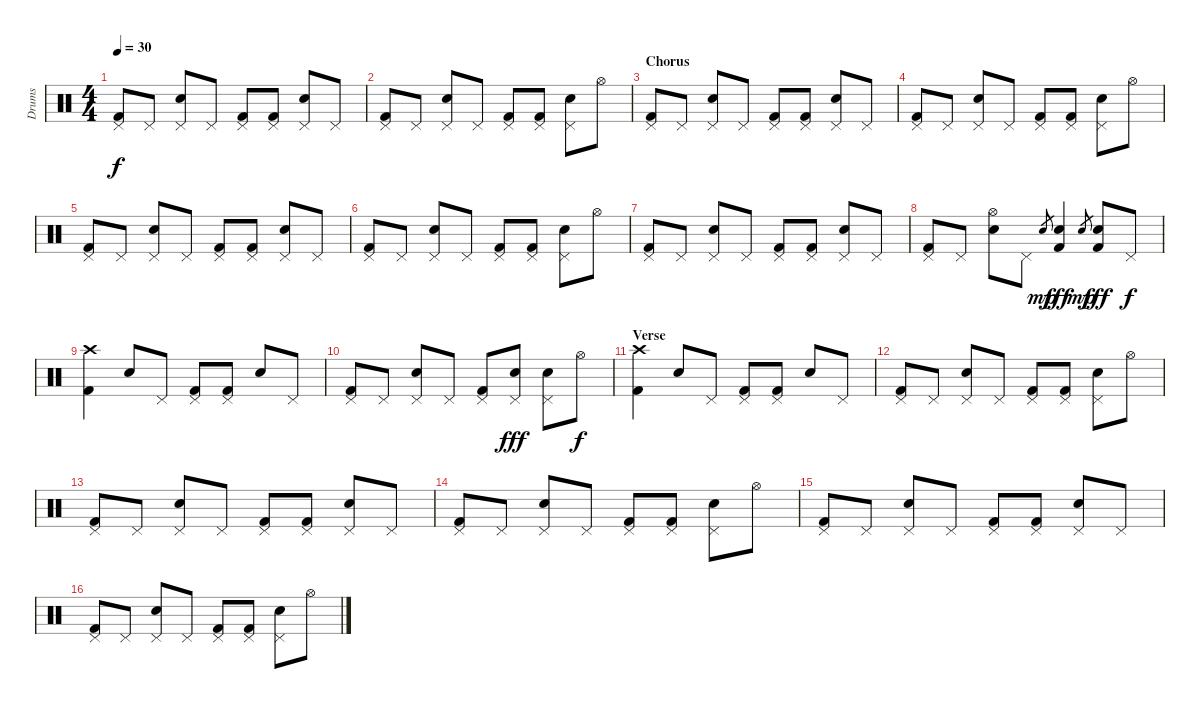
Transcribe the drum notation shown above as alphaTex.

\track ("Drums" "Drums") {instrument percussion}
\staff {score}
\articulation defaults
\ts (4 4)
\tempo 30
\clef neutral
\ks c
("Pedal Hi-Hat (hit)" "Kick (hit) 2").8{dy f} "Pedal Hi-Hat (hit)".8 ("Pedal Hi-Hat (hit)" "Snare (hit) 2").8 "Pedal Hi-Hat (hit)".8 ("Pedal Hi-Hat (hit)" "Kick (hit) 2").8 ("Pedal Hi-Hat (hit)" "Kick (hit) 2").8 ("Pedal Hi-Hat (hit)" "Snare (hit) 2").8 "Pedal Hi-Hat (hit)".8 |
("Pedal Hi-Hat (hit)" "Kick (hit) 2").8 "Pedal Hi-Hat (hit)".8 ("Pedal Hi-Hat (hit)" "Snare (hit) 2").8 "Pedal Hi-Hat (hit)".8 ("Pedal Hi-Hat (hit)" "Kick (hit) 2").8 ("Pedal Hi-Hat (hit)" "Kick (hit) 2").8 ("Pedal Hi-Hat (hit)" "Snare (hit) 2").8 "Hi-Hat (open)".8 |
\section ("" "Chorus")
("Pedal Hi-Hat (hit)" "Kick (hit) 2").8 "Pedal Hi-Hat (hit)".8 ("Pedal Hi-Hat (hit)" "Snare (hit) 2").8 "Pedal Hi-Hat (hit)".8 ("Pedal Hi-Hat (hit)" "Kick (hit) 2").8 ("Pedal Hi-Hat (hit)" "Kick (hit) 2").8 ("Pedal Hi-Hat (hit)" "Snare (hit) 2").8 "Pedal Hi-Hat (hit)".8 |
("Pedal Hi-Hat (hit)" "Kick (hit) 2").8 "Pedal Hi-Hat (hit)".8 ("Pedal Hi-Hat (hit)" "Snare (hit) 2").8 "Pedal Hi-Hat (hit)".8 ("Pedal Hi-Hat (hit)" "Kick (hit) 2").8 ("Pedal Hi-Hat (hit)" "Kick (hit) 2").8 ("Pedal Hi-Hat (hit)" "Snare (hit) 2").8 "Hi-Hat (open)".8 |
("Pedal Hi-Hat (hit)" "Kick (hit) 2").8 "Pedal Hi-Hat (hit)".8 ("Pedal Hi-Hat (hit)" "Snare (hit) 2").8 "Pedal Hi-Hat (hit)".8 ("Pedal Hi-Hat (hit)" "Kick (hit) 2").8 ("Pedal Hi-Hat (hit)" "Kick (hit) 2").8 ("Pedal Hi-Hat (hit)" "Snare (hit) 2").8 "Pedal Hi-Hat (hit)".8 |
("Pedal Hi-Hat (hit)" "Kick (hit) 2").8 "Pedal Hi-Hat (hit)".8 ("Pedal Hi-Hat (hit)" "Snare (hit) 2").8 "Pedal Hi-Hat (hit)".8 ("Pedal Hi-Hat (hit)" "Kick (hit) 2").8 ("Pedal Hi-Hat (hit)" "Kick (hit) 2").8 ("Pedal Hi-Hat (hit)" "Snare (hit) 2").8 "Hi-Hat (open)".8 |
("Pedal Hi-Hat (hit)" "Kick (hit) 2").8 "Pedal Hi-Hat (hit)".8 ("Pedal Hi-Hat (hit)" "Snare (hit) 2").8 "Pedal Hi-Hat (hit)".8 ("Pedal Hi-Hat (hit)" "Kick (hit) 2").8 ("Pedal Hi-Hat (hit)" "Kick (hit) 2").8 ("Pedal Hi-Hat (hit)" "Snare (hit) 2").8 "Pedal Hi-Hat (hit)".8 |
("Pedal Hi-Hat (hit)" "Kick (hit) 2").8 "Pedal Hi-Hat (hit)".8 ("Hi-Hat (open)" "Snare (hit) 2").8 "Pedal Hi-Hat (hit)".8 "Snare (hit) 2".8{gr dy mp} ("Snare (hit) 2" "Kick (hit) 2").4{dy fff} "Snare (hit) 2".8{gr dy mp} ("Snare (hit) 2" "Kick (hit) 2").8{dy fff} "Pedal Hi-Hat (hit)".8{dy f} |
("Crash high (hit)" "Kick (hit) 2").4 "Snare (hit) 2".8 "Pedal Hi-Hat (hit)".8 ("Pedal Hi-Hat (hit)" "Kick (hit) 2").8 ("Pedal Hi-Hat (hit)" "Kick (hit) 2").8 "Snare (hit) 2".8 "Pedal Hi-Hat (hit)".8 |
("Pedal Hi-Hat (hit)" "Kick (hit) 2").8 "Pedal Hi-Hat (hit)".8 ("Pedal Hi-Hat (hit)" "Snare (hit) 2").8 "Pedal Hi-Hat (hit)".8 ("Pedal Hi-Hat (hit)" "Kick (hit) 2").8 ("Pedal Hi-Hat (hit)" "Snare (hit) 2").8{dy fff} ("Pedal Hi-Hat (hit)" "Snare (hit) 2").8 "Hi-Hat (open)".8{dy f} |
\section ("" "Verse")
("Crash high (hit)" "Kick (hit) 2").4 "Snare (hit) 2".8 "Pedal Hi-Hat (hit)".8 ("Pedal Hi-Hat (hit)" "Kick (hit) 2").8 ("Pedal Hi-Hat (hit)" "Kick (hit) 2").8 "Snare (hit) 2".8 "Pedal Hi-Hat (hit)".8 |
("Pedal Hi-Hat (hit)" "Kick (hit) 2").8 "Pedal Hi-Hat (hit)".8 ("Pedal Hi-Hat (hit)" "Snare (hit) 2").8 "Pedal Hi-Hat (hit)".8 ("Pedal Hi-Hat (hit)" "Kick (hit) 2").8 ("Pedal Hi-Hat (hit)" "Kick (hit) 2").8 ("Pedal Hi-Hat (hit)" "Snare (hit) 2").8 "Hi-Hat (open)".8 |
("Pedal Hi-Hat (hit)" "Kick (hit) 2").8 "Pedal Hi-Hat (hit)".8 ("Pedal Hi-Hat (hit)" "Snare (hit) 2").8 "Pedal Hi-Hat (hit)".8 ("Pedal Hi-Hat (hit)" "Kick (hit) 2").8 ("Pedal Hi-Hat (hit)" "Kick (hit) 2").8 ("Pedal Hi-Hat (hit)" "Snare (hit) 2").8 "Pedal Hi-Hat (hit)".8 |
("Pedal Hi-Hat (hit)" "Kick (hit) 2").8 "Pedal Hi-Hat (hit)".8 ("Pedal Hi-Hat (hit)" "Snare (hit) 2").8 "Pedal Hi-Hat (hit)".8 ("Pedal Hi-Hat (hit)" "Kick (hit) 2").8 ("Pedal Hi-Hat (hit)" "Kick (hit) 2").8 ("Pedal Hi-Hat (hit)" "Snare (hit) 2").8 "Hi-Hat (open)".8 |
("Pedal Hi-Hat (hit)" "Kick (hit) 2").8 "Pedal Hi-Hat (hit)".8 ("Pedal Hi-Hat (hit)" "Snare (hit) 2").8 "Pedal Hi-Hat (hit)".8 ("Pedal Hi-Hat (hit)" "Kick (hit) 2").8 ("Pedal Hi-Hat (hit)" "Kick (hit) 2").8 ("Pedal Hi-Hat (hit)" "Snare (hit) 2").8 "Pedal Hi-Hat (hit)".8 |
("Pedal Hi-Hat (hit)" "Kick (hit) 2").8 "Pedal Hi-Hat (hit)".8 ("Pedal Hi-Hat (hit)" "Snare (hit) 2").8 "Pedal Hi-Hat (hit)".8 ("Pedal Hi-Hat (hit)" "Kick (hit) 2").8 ("Pedal Hi-Hat (hit)" "Kick (hit) 2").8 ("Pedal Hi-Hat (hit)" "Snare (hit) 2").8 "Hi-Hat (open)".8
